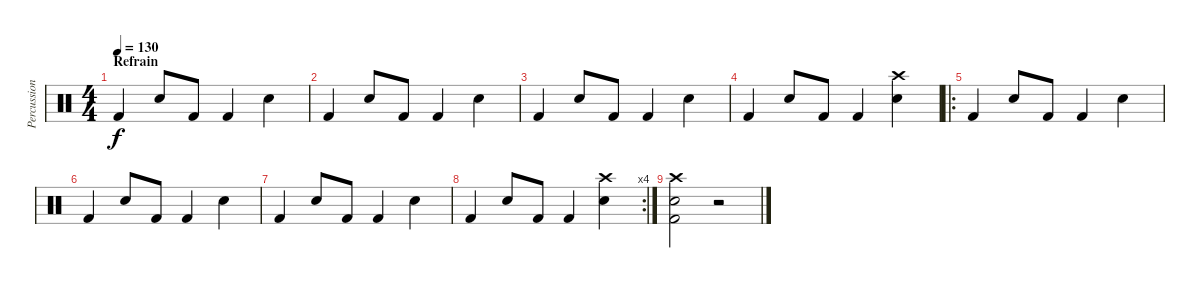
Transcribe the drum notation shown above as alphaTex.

\track ("Percussions" "Percussion") {instrument percussion}
\staff {score}
\articulation defaults
\ts (4 4)
\section ("" "Refrain")
\tempo 130
\clef neutral
\ks c "Kick (hit) 2".4{dy f} "Snare (hit) 2".8 "Kick (hit) 2".8 "Kick (hit) 2".4 "Snare (hit) 2".4
|
"Kick (hit) 2".4 "Snare (hit) 2".8 "Kick (hit) 2".8 "Kick (hit) 2".4 "Snare (hit) 2".4 |
"Kick (hit) 2".4 "Snare (hit) 2".8 "Kick (hit) 2".8 "Kick (hit) 2".4 "Snare (hit) 2".4 |
"Kick (hit) 2".4 "Snare (hit) 2".8 "Kick (hit) 2".8 "Kick (hit) 2".4 ("Snare (hit) 2" "Crash high (hit)").4 |
\ro "Kick (hit) 2".4 "Snare (hit) 2".8 "Kick (hit) 2".8 "Kick (hit) 2".4 "Snare (hit) 2".4
|
"Kick (hit) 2".4 "Snare (hit) 2".8 "Kick (hit) 2".8 "Kick (hit) 2".4 "Snare (hit) 2".4 |
"Kick (hit) 2".4 "Snare (hit) 2".8 "Kick (hit) 2".8 "Kick (hit) 2".4 "Snare (hit) 2".4 |
\rc 4 "Kick (hit) 2".4 "Snare (hit) 2".8 "Kick (hit) 2".8 "Kick (hit) 2".4
("Snare (hit) 2" "Crash high (hit)").4 |
("Snare (hit) 2" "Crash high (hit)" "Kick (hit) 2").2 r.2
